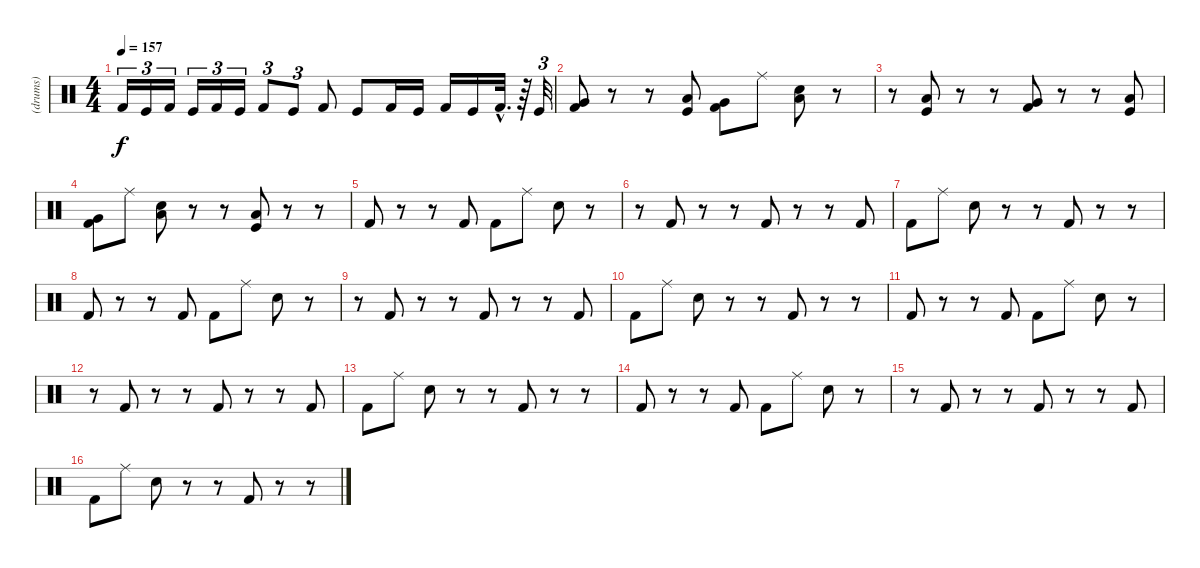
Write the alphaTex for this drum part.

\track ("(drums)" "(drums)") {instrument percussion}
\staff {score}
\articulation defaults
\ts (4 4)
\tempo 157
\clef neutral
\ks c "Kick (hit) 2".16{tu (3 2) dy f} "Kick (hit)".16{tu (3 2)} "Kick (hit) 2".16{tu (3 2)} "Kick (hit)".16{tu (3 2)} "Kick (hit) 2".16{tu (3 2)} "Kick (hit)".16{tu (3 2)} "Kick (hit) 2".8{tu (3 2)} "Kick (hit)".8{tu (3 2)} "Kick (hit) 2".8 "Kick (hit)".8 "Kick (hit) 2".16 "Kick (hit)".16 "Kick (hit) 2".16 "Kick (hit)".16 "Kick (hit) 2"{hac}.32{d}
r.64 "Kick (hit)".32{tu (3 2)} |
("Kick (hit) 2" "Very Low Tom (hit)").8 r.8 r.8 ("Kick (hit)" "Low Tom (hit)").8 ("Kick (hit) 2" "Very Low Tom (hit)").8 "Ride (middle)".8 ("Snare (hit) 2" "Low Floor Tom (hit)").8 r.8 |
r.8 ("Kick (hit)" "Low Tom (hit)").8 r.8 r.8 ("Kick (hit) 2" "Very Low Tom (hit)").8 r.8 r.8 ("Kick (hit)" "Low Tom (hit)").8 |
("Kick (hit) 2" "Very Low Tom (hit)").8 "Ride (middle)".8 ("Snare (hit) 2" "Low Floor Tom (hit)").8 r.8 r.8 ("Kick (hit)" "Low Tom (hit)").8 r.8 r.8 |
"Kick (hit) 2".8 r.8 r.8 "Kick (hit) 2".8 "Kick (hit) 2".8 "Ride (middle)".8 "Snare (hit) 2".8 r.8 |
r.8 "Kick (hit) 2".8 r.8 r.8 "Kick (hit) 2".8 r.8 r.8 "Kick (hit) 2".8 |
"Kick (hit) 2".8 "Ride (middle)".8 "Snare (hit) 2".8 r.8 r.8 "Kick (hit) 2".8 r.8 r.8 |
"Kick (hit) 2".8 r.8 r.8 "Kick (hit) 2".8 "Kick (hit) 2".8 "Ride (middle)".8 "Snare (hit) 2".8 r.8 |
r.8 "Kick (hit) 2".8 r.8 r.8 "Kick (hit) 2".8 r.8 r.8 "Kick (hit) 2".8 |
"Kick (hit) 2".8 "Ride (middle)".8 "Snare (hit) 2".8 r.8 r.8 "Kick (hit) 2".8 r.8 r.8 |
"Kick (hit) 2".8 r.8 r.8 "Kick (hit) 2".8 "Kick (hit) 2".8 "Ride (middle)".8 "Snare (hit) 2".8 r.8 |
r.8 "Kick (hit) 2".8 r.8 r.8 "Kick (hit) 2".8 r.8 r.8 "Kick (hit) 2".8 |
"Kick (hit) 2".8 "Ride (middle)".8 "Snare (hit) 2".8 r.8 r.8 "Kick (hit) 2".8 r.8 r.8 |
"Kick (hit) 2".8 r.8 r.8 "Kick (hit) 2".8 "Kick (hit) 2".8 "Ride (middle)".8 "Snare (hit) 2".8 r.8 |
r.8 "Kick (hit) 2".8 r.8 r.8 "Kick (hit) 2".8 r.8 r.8 "Kick (hit) 2".8 |
"Kick (hit) 2".8 "Ride (middle)".8 "Snare (hit) 2".8 r.8 r.8 "Kick (hit) 2".8 r.8 r.8
